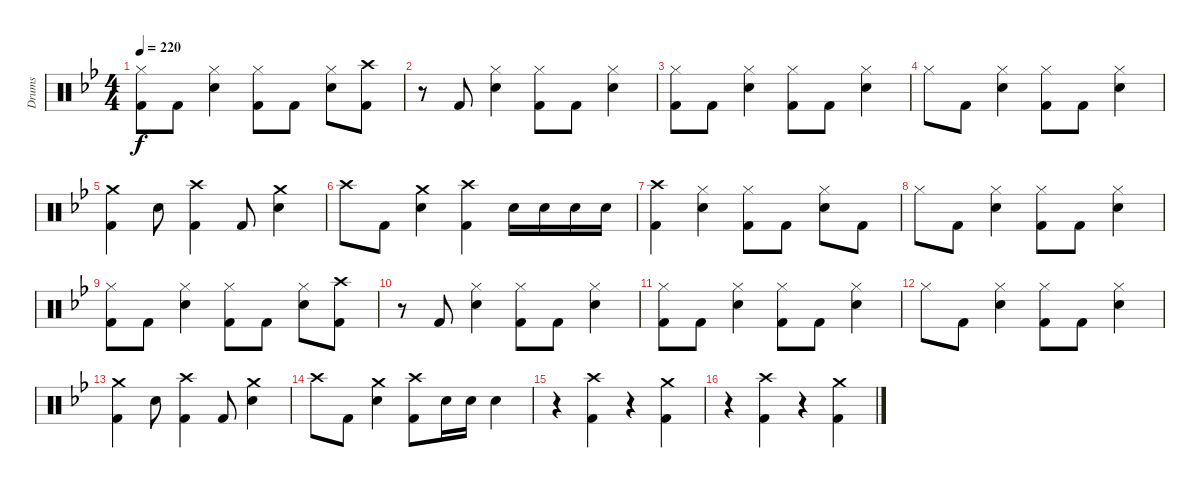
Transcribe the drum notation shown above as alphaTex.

\track ("Drums" "Drums") {instrument percussion}
\staff {score}
\articulation defaults
\ts (4 4)
\tempo 220
\clef neutral
\ks gminor
("Kick (hit) 2" "Hi-Hat (closed)").8{dy f} "Kick (hit) 2".8 ("Snare (hit) 2" "Hi-Hat (closed)").4 ("Kick (hit) 2" "Hi-Hat (closed)").8 "Kick (hit) 2".8 ("Snare (hit) 2" "Hi-Hat (closed)").8 ("Kick (hit) 2" "Crash high (hit)").8 |
r.8 "Kick (hit) 2".8 ("Snare (hit) 2" "Hi-Hat (closed)").4 ("Kick (hit) 2" "Hi-Hat (closed)").8 "Kick (hit) 2".8 ("Snare (hit) 2" "Hi-Hat (closed)").4 |
("Kick (hit) 2" "Hi-Hat (closed)").8 "Kick (hit) 2".8 ("Snare (hit) 2" "Hi-Hat (closed)").4 ("Kick (hit) 2" "Hi-Hat (closed)").8 "Kick (hit) 2".8 ("Snare (hit) 2" "Hi-Hat (closed)").4 |
"Hi-Hat (closed)".8 "Kick (hit) 2".8 ("Snare (hit) 2" "Hi-Hat (closed)").4 ("Kick (hit) 2" "Hi-Hat (closed)").8 "Kick (hit) 2".8 ("Snare (hit) 2" "Hi-Hat (closed)").4 |
("Kick (hit) 2" "Crash medium (hit)").4 "Snare (hit) 2".8 ("Kick (hit) 2" "Crash high (hit)").4 "Kick (hit) 2".8 ("Snare (hit) 2" "Crash medium (hit)").4 |
"Crash high (hit)".8 "Kick (hit) 2".8 ("Snare (hit) 2" "Crash medium (hit)").4 ("Kick (hit) 2" "Crash high (hit)").4 "Snare (hit) 2".16 "Snare (hit) 2".16 "Snare (hit) 2".16 "Snare (hit) 2".16 |
("Kick (hit) 2" "Crash high (hit)").4 ("Snare (hit) 2" "Hi-Hat (closed)").4 ("Kick (hit) 2" "Hi-Hat (closed)").8 "Kick (hit) 2".8 ("Snare (hit) 2" "Hi-Hat (closed)").8 "Kick (hit) 2".8 |
"Hi-Hat (closed)".8 "Kick (hit) 2".8 ("Snare (hit) 2" "Hi-Hat (closed)").4 ("Kick (hit) 2" "Hi-Hat (closed)").8 "Kick (hit) 2".8 ("Snare (hit) 2" "Hi-Hat (closed)").4 |
("Kick (hit) 2" "Hi-Hat (closed)").8 "Kick (hit) 2".8 ("Snare (hit) 2" "Hi-Hat (closed)").4 ("Kick (hit) 2" "Hi-Hat (closed)").8 "Kick (hit) 2".8 ("Snare (hit) 2" "Hi-Hat (closed)").8 ("Kick (hit) 2" "Crash high (hit)").8 |
r.8 "Kick (hit) 2".8 ("Snare (hit) 2" "Hi-Hat (closed)").4 ("Kick (hit) 2" "Hi-Hat (closed)").8 "Kick (hit) 2".8 ("Snare (hit) 2" "Hi-Hat (closed)").4 |
("Kick (hit) 2" "Hi-Hat (closed)").8 "Kick (hit) 2".8 ("Snare (hit) 2" "Hi-Hat (closed)").4 ("Kick (hit) 2" "Hi-Hat (closed)").8 "Kick (hit) 2".8 ("Snare (hit) 2" "Hi-Hat (closed)").4 |
"Hi-Hat (closed)".8 "Kick (hit) 2".8 ("Snare (hit) 2" "Hi-Hat (closed)").4 ("Kick (hit) 2" "Hi-Hat (closed)").8 "Kick (hit) 2".8 ("Snare (hit) 2" "Hi-Hat (closed)").4 |
("Kick (hit) 2" "Crash medium (hit)").4 "Snare (hit) 2".8 ("Kick (hit) 2" "Crash high (hit)").4 "Kick (hit) 2".8 ("Snare (hit) 2" "Crash medium (hit)").4 |
"Crash high (hit)".8 "Kick (hit) 2".8 ("Snare (hit) 2" "Crash medium (hit)").4 ("Kick (hit) 2" "Crash high (hit)").8 "Snare (hit) 2".16 "Snare (hit) 2".16 "Snare (hit) 2".4 |
r.4 ("Kick (hit) 2" "Crash high (hit)").4 r.4 ("Kick (hit) 2" "Crash medium (hit)").4 |
r.4 ("Kick (hit) 2" "Crash high (hit)").4 r.4 ("Kick (hit) 2" "Crash medium (hit)").4
